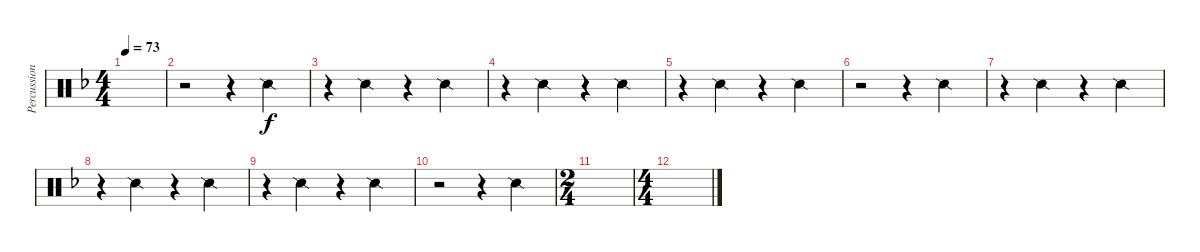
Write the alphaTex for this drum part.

\track ("Percussion" "Percussion") {instrument percussion}
\staff {score}
\articulation defaults
\ts (4 4)
\tempo 73
\clef neutral
\ks f
|
r.2 r.4 "Snare (side stick) 2".4 |
r.4 "Snare (side stick) 2".4 r.4 "Snare (side stick) 2".4 |
r.4 "Snare (side stick) 2".4 r.4 "Snare (side stick) 2".4 |
r.4 "Snare (side stick) 2".4 r.4 "Snare (side stick) 2".4 |
r.2 r.4 "Snare (side stick) 2".4 |
r.4 "Snare (side stick) 2".4 r.4 "Snare (side stick) 2".4 |
r.4 "Snare (side stick) 2".4 r.4 "Snare (side stick) 2".4 |
r.4 "Snare (side stick) 2".4 r.4 "Snare (side stick) 2".4 |
r.2 r.4 "Snare (side stick) 2".4 |
\ts (2 4)
|
\ts (4 4)
